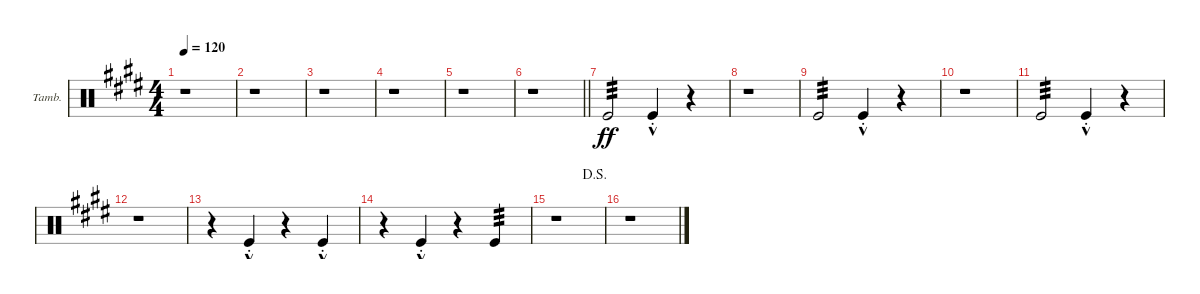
\defaultSystemsLayout 4
\bracketExtendMode groupsimilarinstruments
\firstSystemTrackNameOrientation horizontal
\otherSystemsTrackNameOrientation horizontal
\track ("Tambourine" "Tamb.") {instrument percussion}
\staff {score}
\articulation defaults
\ts (4 4)
\tempo 120
\clef neutral
\scale
0.333333
\ks e
r.1{dy ff} |
\scale
0.333333 r.1 |
\scale
0.333333 r.1 |
\scale
0.333333 r.1 |
\scale
0.333333 r.1 |
\scale
0.333333
\barLineRight lightlight
r.1 |
\scale
0.333333 "Kick (hit)".2{tp 3} "Kick (hit)"{hac st}.4 r.4 |
\scale
0.333333 r.1 |
\scale
0.333333 "Kick (hit)".2{tp 3} "Kick (hit)"{hac st}.4 r.4 |
\scale
0.333333 r.1 |
\scale
0.333333 "Kick (hit)".2{tp 3} "Kick (hit)"{hac st}.4 r.4 |
\scale
0.333333 r.1 |
\scale
0.333333 r.4 "Kick (hit)"{hac st}.4 r.4 "Kick (hit)"{hac st}.4 |
\scale
0.333333 r.4 "Kick (hit)"{hac st}.4 r.4 "Kick (hit)".4{tp 3} |
\jump dalsegno
\scale
0.333333 r.1 |
\scale
0.333333 r.1
